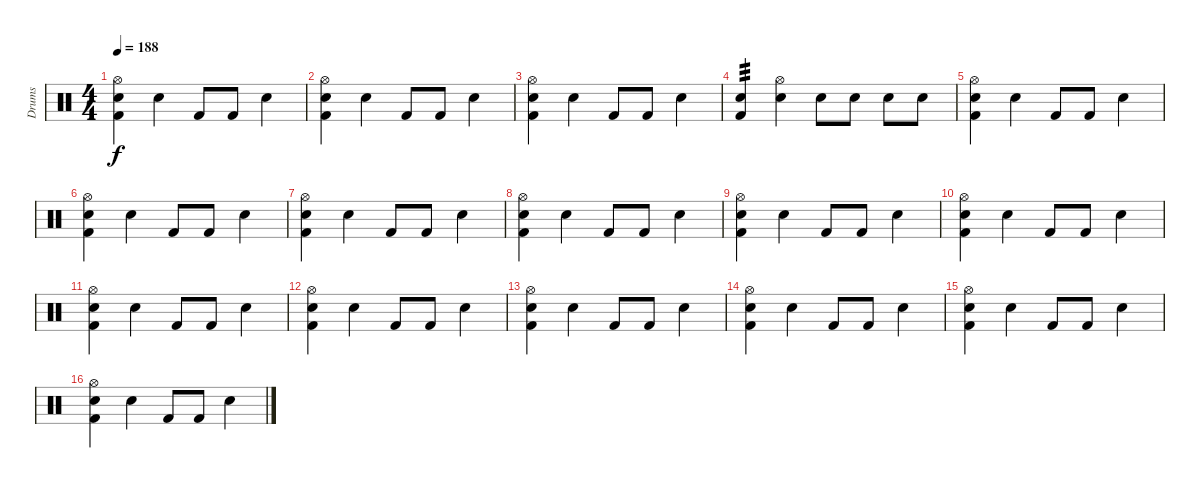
\track ("Drums" "Drums") {instrument percussion}
\staff {score}
\articulation defaults
\ts (4 4)
\tempo 188
\clef neutral
\ks c
("Hi-Hat (open)" "Electric Snare (hit)" "Kick (hit) 2").4{dy f} "Electric Snare (hit)".4 "Kick (hit) 2".8 "Kick (hit) 2".8 "Electric Snare (hit)".4 |
("Hi-Hat (open)" "Electric Snare (hit)" "Kick (hit) 2").4 "Electric Snare (hit)".4 "Kick (hit) 2".8 "Kick (hit) 2".8 "Electric Snare (hit)".4 |
("Hi-Hat (open)" "Electric Snare (hit)" "Kick (hit) 2").4 "Electric Snare (hit)".4 "Kick (hit) 2".8 "Kick (hit) 2".8 "Electric Snare (hit)".4 |
("Electric Snare (hit)" "Kick (hit) 2").4{tp 3} ("Hi-Hat (open)" "Electric Snare (hit)").4 "Electric Snare (hit)".8 "Electric Snare (hit)".8 "Electric Snare (hit)".8 "Electric Snare (hit)".8 |
("Hi-Hat (open)" "Electric Snare (hit)" "Kick (hit) 2").4 "Electric Snare (hit)".4 "Kick (hit) 2".8 "Kick (hit) 2".8 "Electric Snare (hit)".4 |
("Hi-Hat (open)" "Electric Snare (hit)" "Kick (hit) 2").4 "Electric Snare (hit)".4 "Kick (hit) 2".8 "Kick (hit) 2".8 "Electric Snare (hit)".4 |
("Hi-Hat (open)" "Electric Snare (hit)" "Kick (hit) 2").4 "Electric Snare (hit)".4 "Kick (hit) 2".8 "Kick (hit) 2".8 "Electric Snare (hit)".4 |
("Hi-Hat (open)" "Electric Snare (hit)" "Kick (hit) 2").4 "Electric Snare (hit)".4 "Kick (hit) 2".8 "Kick (hit) 2".8 "Electric Snare (hit)".4 |
("Hi-Hat (open)" "Electric Snare (hit)" "Kick (hit) 2").4 "Electric Snare (hit)".4 "Kick (hit) 2".8 "Kick (hit) 2".8 "Electric Snare (hit)".4 |
("Hi-Hat (open)" "Electric Snare (hit)" "Kick (hit) 2").4 "Electric Snare (hit)".4 "Kick (hit) 2".8 "Kick (hit) 2".8 "Electric Snare (hit)".4 |
("Hi-Hat (open)" "Electric Snare (hit)" "Kick (hit) 2").4 "Electric Snare (hit)".4 "Kick (hit) 2".8 "Kick (hit) 2".8 "Electric Snare (hit)".4 |
("Hi-Hat (open)" "Electric Snare (hit)" "Kick (hit) 2").4 "Electric Snare (hit)".4 "Kick (hit) 2".8 "Kick (hit) 2".8 "Electric Snare (hit)".4 |
("Hi-Hat (open)" "Electric Snare (hit)" "Kick (hit) 2").4 "Electric Snare (hit)".4 "Kick (hit) 2".8 "Kick (hit) 2".8 "Electric Snare (hit)".4 |
("Hi-Hat (open)" "Electric Snare (hit)" "Kick (hit) 2").4 "Electric Snare (hit)".4 "Kick (hit) 2".8 "Kick (hit) 2".8 "Electric Snare (hit)".4 |
("Hi-Hat (open)" "Electric Snare (hit)" "Kick (hit) 2").4 "Electric Snare (hit)".4 "Kick (hit) 2".8 "Kick (hit) 2".8 "Electric Snare (hit)".4 |
("Hi-Hat (open)" "Electric Snare (hit)" "Kick (hit) 2").4 "Electric Snare (hit)".4 "Kick (hit) 2".8 "Kick (hit) 2".8 "Electric Snare (hit)".4
